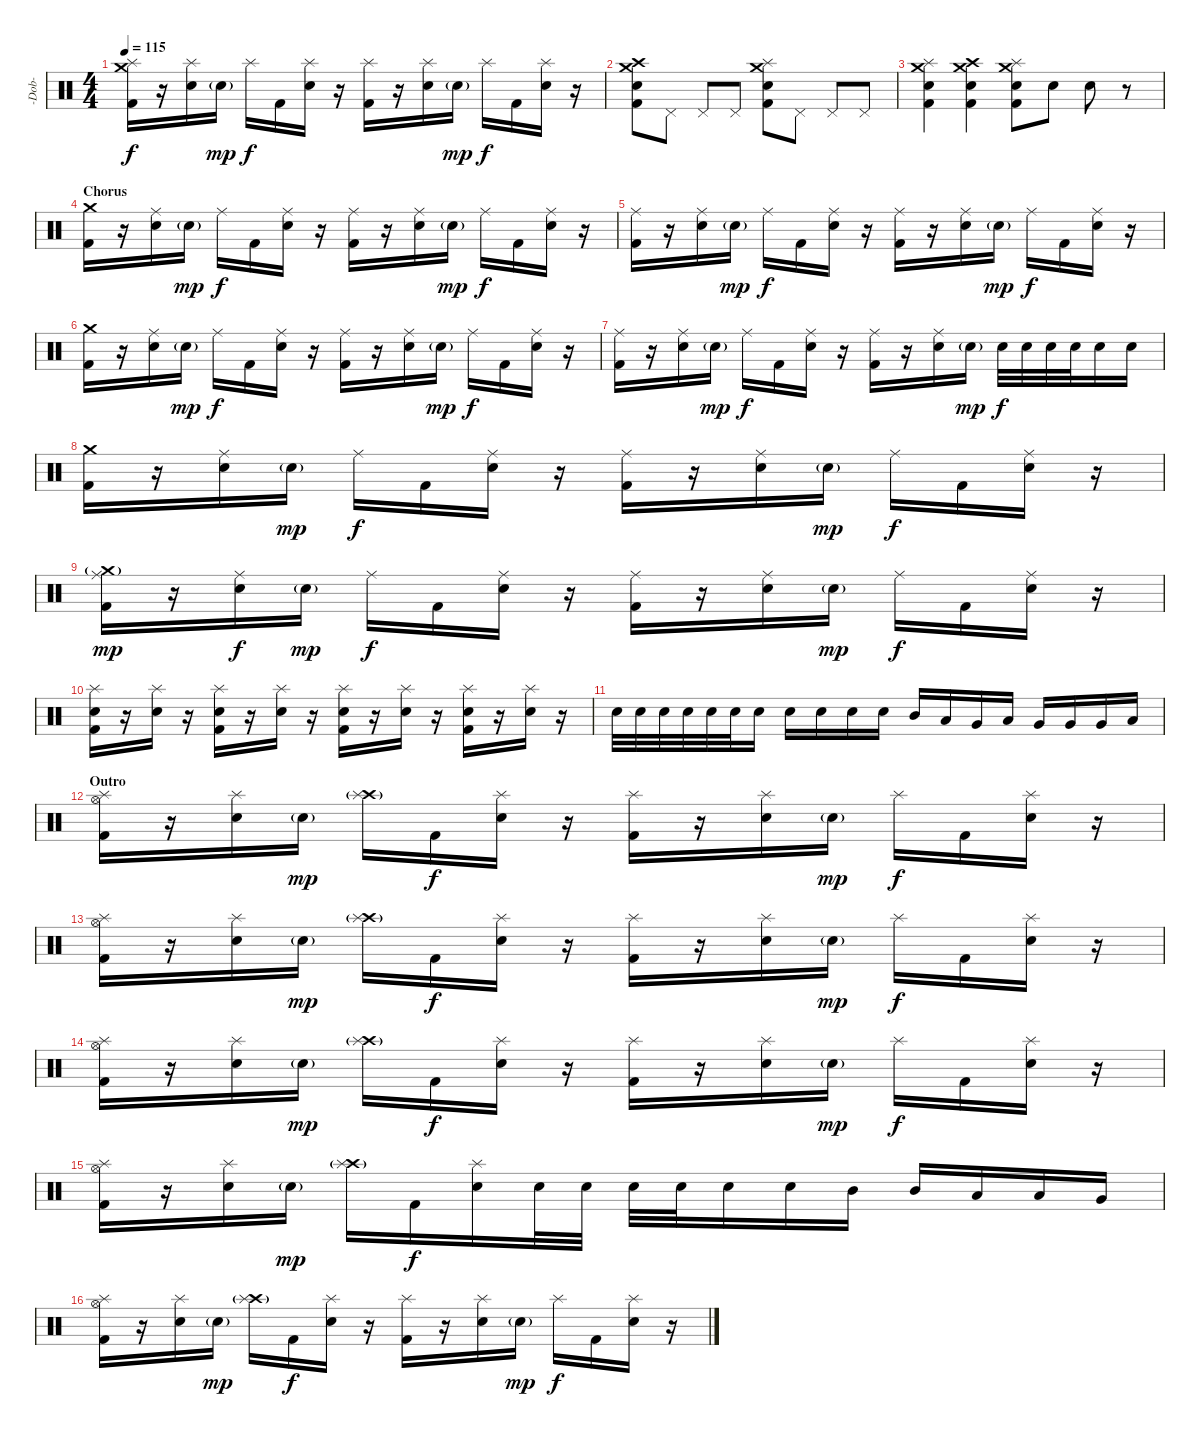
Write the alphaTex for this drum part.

\track ("-Dob-" "-Dob-") {instrument percussion}
\staff {score}
\articulation defaults
\ts (4 4)
\tempo 115
\clef neutral
\ks c
("Crash medium (hit)" "Splash (hit)" "Kick (hit) 2").16{dy f} r.16 ("Splash (hit)" "Snare (hit) 2").16 "Snare (hit) 2"{g}.16{dy mp} "Splash (hit)".16{dy f} "Kick (hit) 2".16 ("Splash (hit)" "Snare (hit) 2").16 r.16 ("Splash (hit)" "Kick (hit) 2").16 r.16 ("Splash (hit)" "Snare (hit) 2").16 "Snare (hit) 2"{g}.16{dy mp} "Splash (hit)".16{dy f} "Kick (hit) 2".16 ("Splash (hit)" "Snare (hit) 2").16 r.16 |
("Crash high (hit)" "Crash medium (hit)" "Snare (hit) 2" "Kick (hit) 2").8 "Pedal Hi-Hat (hit)".8 "Pedal Hi-Hat (hit)".8 "Pedal Hi-Hat (hit)".8 ("Splash (hit)" "Crash medium (hit)" "Snare (hit) 2" "Kick (hit) 2").8 "Pedal Hi-Hat (hit)".8 "Pedal Hi-Hat (hit)".8 "Pedal Hi-Hat (hit)".8 |
("Splash (hit)" "Crash medium (hit)" "Snare (hit) 2" "Kick (hit) 2").4 ("Crash high (hit)" "Crash medium (hit)" "Snare (hit) 2" "Kick (hit) 2").4 ("Splash (hit)" "Crash medium (hit)" "Snare (hit) 2" "Kick (hit) 2").8 "Snare (hit) 2".8 "Snare (hit) 2".8 r.8 |
\section ("" "Chorus")
("Crash medium (hit)" "Kick (hit) 2").16 r.16 ("Ride (middle)" "Snare (hit) 2").16 "Snare (hit) 2"{g}.16{dy mp} "Ride (middle)".16{dy f} "Kick (hit) 2".16 ("Ride (middle)" "Snare (hit) 2").16 r.16 ("Ride (middle)" "Kick (hit) 2").16 r.16 ("Ride (middle)" "Snare (hit) 2").16 "Snare (hit) 2"{g}.16{dy mp} "Ride (middle)".16{dy f} "Kick (hit) 2".16 ("Ride (middle)" "Snare (hit) 2").16 r.16 |
("Ride (middle)" "Kick (hit) 2").16 r.16 ("Ride (middle)" "Snare (hit) 2").16 "Snare (hit) 2"{g}.16{dy mp} "Ride (middle)".16{dy f} "Kick (hit) 2".16 ("Ride (middle)" "Snare (hit) 2").16 r.16 ("Ride (middle)" "Kick (hit) 2").16 r.16 ("Ride (middle)" "Snare (hit) 2").16 "Snare (hit) 2"{g}.16{dy mp} "Ride (middle)".16{dy f} "Kick (hit) 2".16 ("Ride (middle)" "Snare (hit) 2").16 r.16 |
("Crash medium (hit)" "Kick (hit) 2").16 r.16 ("Ride (middle)" "Snare (hit) 2").16 "Snare (hit) 2"{g}.16{dy mp} "Ride (middle)".16{dy f} "Kick (hit) 2".16 ("Ride (middle)" "Snare (hit) 2").16 r.16 ("Ride (middle)" "Kick (hit) 2").16 r.16 ("Ride (middle)" "Snare (hit) 2").16 "Snare (hit) 2"{g}.16{dy mp} "Ride (middle)".16{dy f} "Kick (hit) 2".16 ("Ride (middle)" "Snare (hit) 2").16 r.16 |
("Ride (middle)" "Kick (hit) 2").16 r.16 ("Ride (middle)" "Snare (hit) 2").16 "Snare (hit) 2"{g}.16{dy mp} "Ride (middle)".16{dy f} "Kick (hit) 2".16 ("Ride (middle)" "Snare (hit) 2").16 r.16 ("Ride (middle)" "Kick (hit) 2").16 r.16 ("Ride (middle)" "Snare (hit) 2").16 "Snare (hit) 2"{g}.16{dy mp} "Snare (hit) 2".32{dy f} "Snare (hit) 2".32 "Snare (hit) 2".32 "Snare (hit) 2".32 "Snare (hit) 2".16 "Snare (hit) 2".16 |
("Crash medium (hit)" "Kick (hit) 2").16 r.16 ("Ride (middle)" "Snare (hit) 2").16 "Snare (hit) 2"{g}.16{dy mp} "Ride (middle)".16{dy f} "Kick (hit) 2".16 ("Ride (middle)" "Snare (hit) 2").16 r.16 ("Ride (middle)" "Kick (hit) 2").16 r.16 ("Ride (middle)" "Snare (hit) 2").16 "Snare (hit) 2"{g}.16{dy mp} "Ride (middle)".16{dy f} "Kick (hit) 2".16 ("Ride (middle)" "Snare (hit) 2").16 r.16 |
("Crash medium (hit)"{g} "Ride (middle)" "Kick (hit) 2").16{dy mp} r.16 ("Ride (middle)" "Snare (hit) 2").16{dy f} "Snare (hit) 2"{g}.16{dy mp} "Ride (middle)".16{dy f} "Kick (hit) 2".16 ("Ride (middle)" "Snare (hit) 2").16 r.16 ("Ride (middle)" "Kick (hit) 2").16 r.16 ("Ride (middle)" "Snare (hit) 2").16 "Snare (hit) 2"{g}.16{dy mp} "Ride (middle)".16{dy f} "Kick (hit) 2".16 ("Ride (middle)" "Snare (hit) 2").16 r.16 |
("Splash (hit)" "Snare (hit) 2" "Kick (hit) 2").16 r.16 ("Splash (hit)" "Snare (hit) 2").16 r.16 ("Splash (hit)" "Snare (hit) 2" "Kick (hit) 2").16 r.16 ("Splash (hit)" "Snare (hit) 2").16 r.16 ("Splash (hit)" "Snare (hit) 2" "Kick (hit) 2").16 r.16 ("Splash (hit)" "Snare (hit) 2").16 r.16 ("Splash (hit)" "Snare (hit) 2" "Kick (hit) 2").16 r.16 ("Splash (hit)" "Snare (hit) 2").16 r.16 |
"Snare (hit) 2".32 "Snare (hit) 2".32 "Snare (hit) 2".32 "Snare (hit) 2".32 "Snare (hit) 2".32 "Snare (hit) 2".32 "Snare (hit) 2".16 "Snare (hit) 2".16 "Snare (hit) 2".16 "Snare (hit) 2".16 "Snare (hit) 2".16 "Mid Tom (hit)".16 "Low Tom (hit)".16 "Very Low Tom (hit)".16 "Low Floor Tom (hit)".16 "Very Low Tom (hit)".16 "Very Low Tom (hit)".16 "Very Low Tom (hit)".16 "Low Floor Tom (hit)".16 |
\section ("" "Outro")
("Hi-Hat (open)" "Splash (hit)" "Kick (hit) 2").16 r.16 ("Splash (hit)" "Snare (hit) 2").16 "Snare (hit) 2"{g}.16{dy mp} ("Crash high (hit)" "Splash (hit)"{g}).16 "Kick (hit) 2".16{dy f} ("Splash (hit)" "Snare (hit) 2").16 r.16 ("Splash (hit)" "Kick (hit) 2").16 r.16 ("Splash (hit)" "Snare (hit) 2").16 "Snare (hit) 2"{g}.16{dy mp} "Splash (hit)".16{dy f} "Kick (hit) 2".16 ("Splash (hit)" "Snare (hit) 2").16 r.16 |
("Hi-Hat (open)" "Splash (hit)" "Kick (hit) 2").16 r.16 ("Splash (hit)" "Snare (hit) 2").16 "Snare (hit) 2"{g}.16{dy mp} ("Crash high (hit)" "Splash (hit)"{g}).16 "Kick (hit) 2".16{dy f} ("Splash (hit)" "Snare (hit) 2").16 r.16 ("Splash (hit)" "Kick (hit) 2").16 r.16 ("Splash (hit)" "Snare (hit) 2").16 "Snare (hit) 2"{g}.16{dy mp} "Splash (hit)".16{dy f} "Kick (hit) 2".16 ("Splash (hit)" "Snare (hit) 2").16 r.16 |
("Hi-Hat (open)" "Splash (hit)" "Kick (hit) 2").16 r.16 ("Splash (hit)" "Snare (hit) 2").16 "Snare (hit) 2"{g}.16{dy mp} ("Crash high (hit)" "Splash (hit)"{g}).16 "Kick (hit) 2".16{dy f} ("Splash (hit)" "Snare (hit) 2").16 r.16 ("Splash (hit)" "Kick (hit) 2").16 r.16 ("Splash (hit)" "Snare (hit) 2").16 "Snare (hit) 2"{g}.16{dy mp} "Splash (hit)".16{dy f} "Kick (hit) 2".16 ("Splash (hit)" "Snare (hit) 2").16 r.16 |
("Hi-Hat (open)" "Splash (hit)" "Kick (hit) 2").16 r.16 ("Splash (hit)" "Snare (hit) 2").16 "Snare (hit) 2"{g}.16{dy mp} ("Crash high (hit)" "Splash (hit)"{g}).16 "Kick (hit) 2".16{dy f} ("Splash (hit)" "Snare (hit) 2").16 "Snare (hit) 2".32 "Snare (hit) 2".32 "Snare (hit) 2".32 "Snare (hit) 2".32 "Snare (hit) 2".16 "Snare (hit) 2".16 "Mid Tom (hit)".16 "Mid Tom (hit)".16 "Low Tom (hit)".16 "Low Tom (hit)".16 "Very Low Tom (hit)".16 |
("Hi-Hat (open)" "Splash (hit)" "Kick (hit) 2").16 r.16 ("Splash (hit)" "Snare (hit) 2").16 "Snare (hit) 2"{g}.16{dy mp} ("Crash high (hit)" "Splash (hit)"{g}).16 "Kick (hit) 2".16{dy f} ("Splash (hit)" "Snare (hit) 2").16 r.16 ("Splash (hit)" "Kick (hit) 2").16 r.16 ("Splash (hit)" "Snare (hit) 2").16 "Snare (hit) 2"{g}.16{dy mp} "Splash (hit)".16{dy f} "Kick (hit) 2".16 ("Splash (hit)" "Snare (hit) 2").16 r.16
